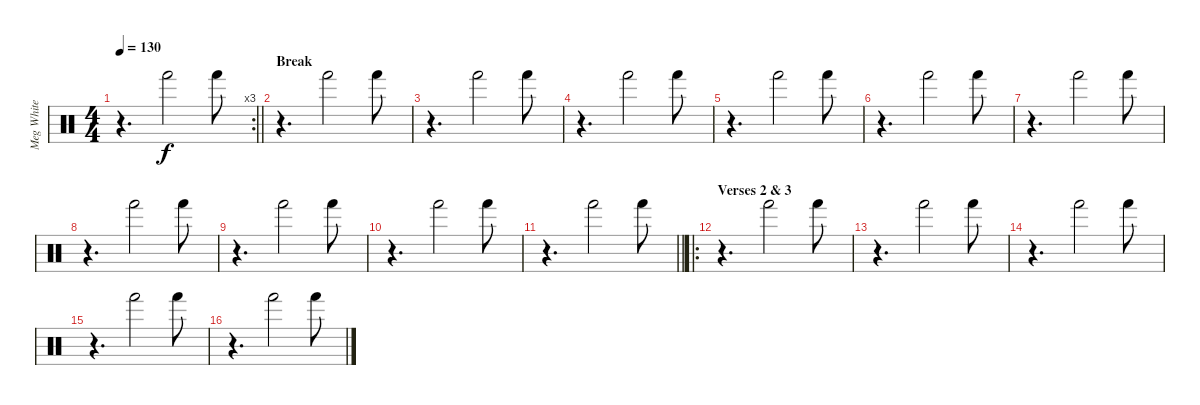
\track ("Meg White" "Meg White") {instrument percussion}
\staff {score}
\articulation defaults
\rc 3
\ts (4 4)
\tempo 130
\clef neutral
\barLineRight lightlight
\ks c
r.4{d dy f} "Hand (hit)".2 "Hand (hit)".8 |
\section ("" "Break")
r.4{d} "Hand (hit)".2 "Hand (hit)".8 |
r.4{d} "Hand (hit)".2 "Hand (hit)".8 |
r.4{d} "Hand (hit)".2 "Hand (hit)".8 |
r.4{d} "Hand (hit)".2 "Hand (hit)".8 |
r.4{d} "Hand (hit)".2 "Hand (hit)".8 |
r.4{d} "Hand (hit)".2 "Hand (hit)".8 |
r.4{d} "Hand (hit)".2 "Hand (hit)".8 |
r.4{d} "Hand (hit)".2 "Hand (hit)".8 |
r.4{d} "Hand (hit)".2 "Hand (hit)".8 |
\barLineRight lightlight
r.4{d} "Hand (hit)".2 "Hand (hit)".8 |
\ro
\section ("" "Verses 2 & 3")
r.4{d} "Hand (hit)".2 "Hand (hit)".8 |
r.4{d} "Hand (hit)".2 "Hand (hit)".8 |
r.4{d} "Hand (hit)".2 "Hand (hit)".8 |
r.4{d} "Hand (hit)".2 "Hand (hit)".8 |
r.4{d} "Hand (hit)".2 "Hand (hit)".8
